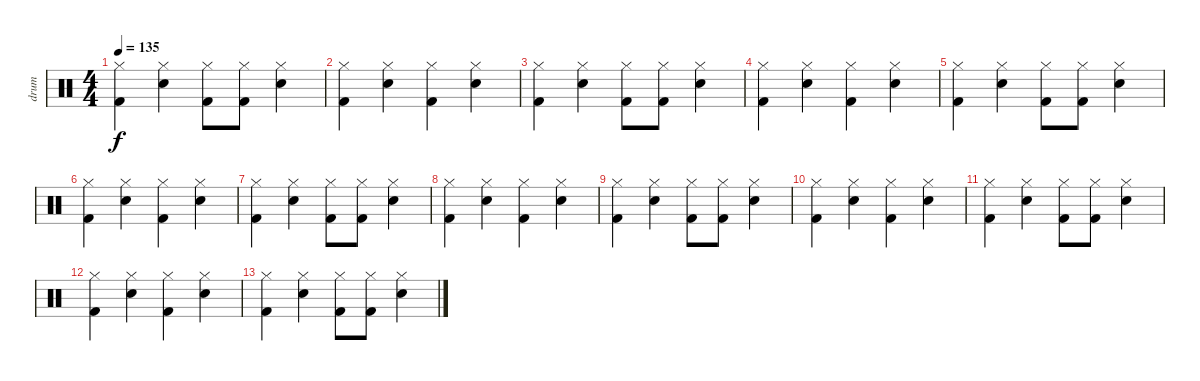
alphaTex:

\track ("drum" "drum") {instrument percussion}
\staff {score}
\articulation defaults
\ts (4 4)
\tempo 135
\clef neutral
\ks c
("Hi-Hat (closed)" "Kick (hit) 2").4{dy f} ("Hi-Hat (closed)" "Snare (hit) 2").4 ("Hi-Hat (closed)" "Kick (hit) 2").8 ("Hi-Hat (closed)" "Kick (hit) 2").8 ("Hi-Hat (closed)" "Snare (hit) 2").4 |
("Hi-Hat (closed)" "Kick (hit) 2").4 ("Hi-Hat (closed)" "Snare (hit) 2").4 ("Hi-Hat (closed)" "Kick (hit) 2").4 ("Hi-Hat (closed)" "Snare (hit) 2").4 |
("Hi-Hat (closed)" "Kick (hit) 2").4 ("Hi-Hat (closed)" "Snare (hit) 2").4 ("Hi-Hat (closed)" "Kick (hit) 2").8 ("Hi-Hat (closed)" "Kick (hit) 2").8 ("Hi-Hat (closed)" "Snare (hit) 2").4 |
("Hi-Hat (closed)" "Kick (hit) 2").4 ("Hi-Hat (closed)" "Snare (hit) 2").4 ("Hi-Hat (closed)" "Kick (hit) 2").4 ("Hi-Hat (closed)" "Snare (hit) 2").4 |
("Hi-Hat (closed)" "Kick (hit) 2").4 ("Hi-Hat (closed)" "Snare (hit) 2").4 ("Hi-Hat (closed)" "Kick (hit) 2").8 ("Hi-Hat (closed)" "Kick (hit) 2").8 ("Hi-Hat (closed)" "Snare (hit) 2").4 |
("Hi-Hat (closed)" "Kick (hit) 2").4 ("Hi-Hat (closed)" "Snare (hit) 2").4 ("Hi-Hat (closed)" "Kick (hit) 2").4 ("Hi-Hat (closed)" "Snare (hit) 2").4 |
("Hi-Hat (closed)" "Kick (hit) 2").4 ("Hi-Hat (closed)" "Snare (hit) 2").4 ("Hi-Hat (closed)" "Kick (hit) 2").8 ("Hi-Hat (closed)" "Kick (hit) 2").8 ("Hi-Hat (closed)" "Snare (hit) 2").4 |
("Hi-Hat (closed)" "Kick (hit) 2").4 ("Hi-Hat (closed)" "Snare (hit) 2").4 ("Hi-Hat (closed)" "Kick (hit) 2").4 ("Hi-Hat (closed)" "Snare (hit) 2").4 |
("Hi-Hat (closed)" "Kick (hit) 2").4 ("Hi-Hat (closed)" "Snare (hit) 2").4 ("Hi-Hat (closed)" "Kick (hit) 2").8 ("Hi-Hat (closed)" "Kick (hit) 2").8 ("Hi-Hat (closed)" "Snare (hit) 2").4 |
("Hi-Hat (closed)" "Kick (hit) 2").4 ("Hi-Hat (closed)" "Snare (hit) 2").4 ("Hi-Hat (closed)" "Kick (hit) 2").4 ("Hi-Hat (closed)" "Snare (hit) 2").4 |
("Hi-Hat (closed)" "Kick (hit) 2").4 ("Hi-Hat (closed)" "Snare (hit) 2").4 ("Hi-Hat (closed)" "Kick (hit) 2").8 ("Hi-Hat (closed)" "Kick (hit) 2").8 ("Hi-Hat (closed)" "Snare (hit) 2").4 |
("Hi-Hat (closed)" "Kick (hit) 2").4 ("Hi-Hat (closed)" "Snare (hit) 2").4 ("Hi-Hat (closed)" "Kick (hit) 2").4 ("Hi-Hat (closed)" "Snare (hit) 2").4 |
("Hi-Hat (closed)" "Kick (hit) 2").4 ("Hi-Hat (closed)" "Snare (hit) 2").4 ("Hi-Hat (closed)" "Kick (hit) 2").8 ("Hi-Hat (closed)" "Kick (hit) 2").8 ("Hi-Hat (closed)" "Snare (hit) 2").4
